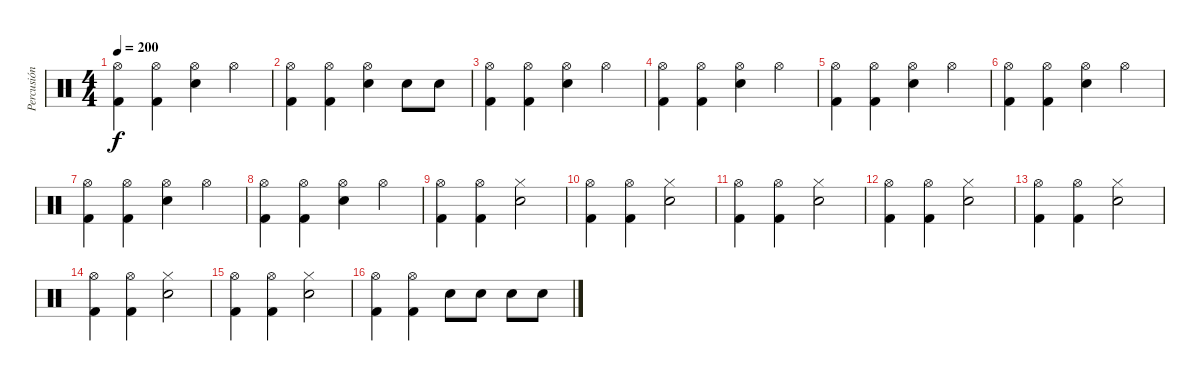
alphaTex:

\track ("Percusión" "Percusión") {instrument percussion}
\staff {score}
\articulation defaults
\ts (4 4)
\tempo 200
\clef neutral
\ks c
("Hi-Hat (open)" "Kick (hit) 2").4{dy f} ("Hi-Hat (open)" "Kick (hit) 2").4 ("Hi-Hat (open)" "Electric Snare (hit)").4 "Hi-Hat (open)".4 |
("Hi-Hat (open)" "Kick (hit) 2").4 ("Hi-Hat (open)" "Kick (hit) 2").4 ("Hi-Hat (open)" "Electric Snare (hit)").4 "Electric Snare (hit)".8 "Electric Snare (hit)".8 |
("Hi-Hat (open)" "Kick (hit) 2").4 ("Hi-Hat (open)" "Kick (hit) 2").4 ("Hi-Hat (open)" "Electric Snare (hit)").4 "Hi-Hat (open)".4 |
("Hi-Hat (open)" "Kick (hit) 2").4 ("Hi-Hat (open)" "Kick (hit) 2").4 ("Hi-Hat (open)" "Electric Snare (hit)").4 "Hi-Hat (open)".4 |
("Hi-Hat (open)" "Kick (hit) 2").4 ("Hi-Hat (open)" "Kick (hit) 2").4 ("Hi-Hat (open)" "Electric Snare (hit)").4 "Hi-Hat (open)".4 |
("Hi-Hat (open)" "Kick (hit) 2").4 ("Hi-Hat (open)" "Kick (hit) 2").4 ("Hi-Hat (open)" "Electric Snare (hit)").4 "Hi-Hat (open)".4 |
("Hi-Hat (open)" "Kick (hit) 2").4 ("Hi-Hat (open)" "Kick (hit) 2").4 ("Hi-Hat (open)" "Electric Snare (hit)").4 "Hi-Hat (open)".4 |
("Hi-Hat (open)" "Kick (hit) 2").4 ("Hi-Hat (open)" "Kick (hit) 2").4 ("Hi-Hat (open)" "Electric Snare (hit)").4 "Hi-Hat (open)".4 |
("Hi-Hat (open)" "Kick (hit) 2").4 ("Hi-Hat (open)" "Kick (hit) 2").4 ("Hi-Hat (closed)" "Electric Snare (hit)").2 |
("Hi-Hat (open)" "Kick (hit) 2").4 ("Hi-Hat (open)" "Kick (hit) 2").4 ("Hi-Hat (closed)" "Electric Snare (hit)").2 |
("Hi-Hat (open)" "Kick (hit) 2").4 ("Hi-Hat (open)" "Kick (hit) 2").4 ("Hi-Hat (closed)" "Electric Snare (hit)").2 |
("Hi-Hat (open)" "Kick (hit) 2").4 ("Hi-Hat (open)" "Kick (hit) 2").4 ("Hi-Hat (closed)" "Electric Snare (hit)").2 |
("Hi-Hat (open)" "Kick (hit) 2").4 ("Hi-Hat (open)" "Kick (hit) 2").4 ("Hi-Hat (closed)" "Electric Snare (hit)").2 |
("Hi-Hat (open)" "Kick (hit) 2").4 ("Hi-Hat (open)" "Kick (hit) 2").4 ("Hi-Hat (closed)" "Electric Snare (hit)").2 |
("Hi-Hat (open)" "Kick (hit) 2").4 ("Hi-Hat (open)" "Kick (hit) 2").4 ("Hi-Hat (closed)" "Electric Snare (hit)").2 |
("Hi-Hat (open)" "Kick (hit) 2").4 ("Hi-Hat (open)" "Kick (hit) 2").4 "Electric Snare (hit)".8 "Electric Snare (hit)".8 "Electric Snare (hit)".8 "Electric Snare (hit)".8
